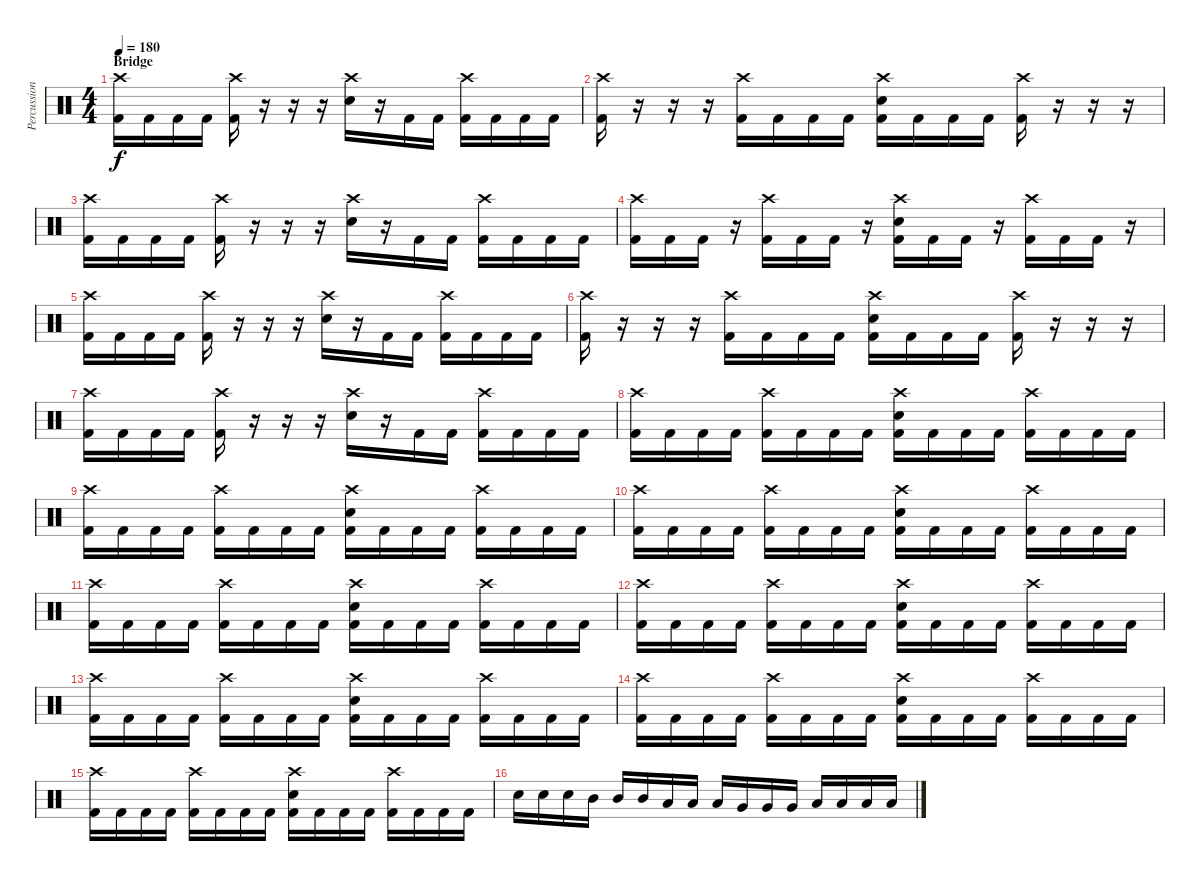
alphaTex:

\track ("Percussions" "Percussion") {instrument percussion}
\staff {score}
\articulation defaults
\ts (4 4)
\section ("" "Bridge")
\tempo 180
\clef neutral
\ks c
("Crash high (hit)" "Kick (hit) 2").16{dy f} "Kick (hit) 2".16 "Kick (hit) 2".16 "Kick (hit) 2".16 ("Crash high (hit)" "Kick (hit) 2").16 r.16 r.16 r.16 ("Crash high (hit)" "Electric Snare (hit)").16 r.16 "Kick (hit) 2".16 "Kick (hit) 2".16 ("Crash high (hit)" "Kick (hit) 2").16 "Kick (hit) 2".16 "Kick (hit) 2".16 "Kick (hit) 2".16 |
("Crash high (hit)" "Kick (hit) 2").16 r.16 r.16 r.16 ("Crash high (hit)" "Kick (hit) 2").16 "Kick (hit) 2".16 "Kick (hit) 2".16 "Kick (hit) 2".16 ("Crash high (hit)" "Electric Snare (hit)" "Kick (hit) 2").16 "Kick (hit) 2".16 "Kick (hit) 2".16 "Kick (hit) 2".16 ("Crash high (hit)" "Kick (hit) 2").16 r.16 r.16 r.16 |
("Crash high (hit)" "Kick (hit) 2").16 "Kick (hit) 2".16 "Kick (hit) 2".16 "Kick (hit) 2".16 ("Crash high (hit)" "Kick (hit) 2").16 r.16 r.16 r.16 ("Crash high (hit)" "Electric Snare (hit)").16 r.16 "Kick (hit) 2".16 "Kick (hit) 2".16 ("Crash high (hit)" "Kick (hit) 2").16 "Kick (hit) 2".16 "Kick (hit) 2".16 "Kick (hit) 2".16 |
("Crash high (hit)" "Kick (hit) 2").16 "Kick (hit) 2".16 "Kick (hit) 2".16 r.16 ("Crash high (hit)" "Kick (hit) 2").16 "Kick (hit) 2".16 "Kick (hit) 2".16 r.16 ("Crash high (hit)" "Electric Snare (hit)" "Kick (hit) 2").16 "Kick (hit) 2".16 "Kick (hit) 2".16 r.16 ("Crash high (hit)" "Kick (hit) 2").16 "Kick (hit) 2".16 "Kick (hit) 2".16 r.16 |
("Crash high (hit)" "Kick (hit) 2").16 "Kick (hit) 2".16 "Kick (hit) 2".16 "Kick (hit) 2".16 ("Crash high (hit)" "Kick (hit) 2").16 r.16 r.16 r.16 ("Crash high (hit)" "Electric Snare (hit)").16 r.16 "Kick (hit) 2".16 "Kick (hit) 2".16 ("Crash high (hit)" "Kick (hit) 2").16 "Kick (hit) 2".16 "Kick (hit) 2".16 "Kick (hit) 2".16 |
("Crash high (hit)" "Kick (hit) 2").16 r.16 r.16 r.16 ("Crash high (hit)" "Kick (hit) 2").16 "Kick (hit) 2".16 "Kick (hit) 2".16 "Kick (hit) 2".16 ("Crash high (hit)" "Electric Snare (hit)" "Kick (hit) 2").16 "Kick (hit) 2".16 "Kick (hit) 2".16 "Kick (hit) 2".16 ("Crash high (hit)" "Kick (hit) 2").16 r.16 r.16 r.16 |
("Crash high (hit)" "Kick (hit) 2").16 "Kick (hit) 2".16 "Kick (hit) 2".16 "Kick (hit) 2".16 ("Crash high (hit)" "Kick (hit) 2").16 r.16 r.16 r.16 ("Crash high (hit)" "Electric Snare (hit)").16 r.16 "Kick (hit) 2".16 "Kick (hit) 2".16 ("Crash high (hit)" "Kick (hit) 2").16 "Kick (hit) 2".16 "Kick (hit) 2".16 "Kick (hit) 2".16 |
("Crash high (hit)" "Kick (hit) 2").16 "Kick (hit) 2".16 "Kick (hit) 2".16 "Kick (hit) 2".16 ("Crash high (hit)" "Kick (hit) 2").16 "Kick (hit) 2".16 "Kick (hit) 2".16 "Kick (hit) 2".16 ("Crash high (hit)" "Electric Snare (hit)" "Kick (hit) 2").16 "Kick (hit) 2".16 "Kick (hit) 2".16 "Kick (hit) 2".16 ("Crash high (hit)" "Kick (hit) 2").16 "Kick (hit) 2".16 "Kick (hit) 2".16 "Kick (hit) 2".16 |
("Crash high (hit)" "Kick (hit) 2").16 "Kick (hit) 2".16 "Kick (hit) 2".16 "Kick (hit) 2".16 ("Crash high (hit)" "Kick (hit) 2").16 "Kick (hit) 2".16 "Kick (hit) 2".16 "Kick (hit) 2".16 ("Crash high (hit)" "Electric Snare (hit)" "Kick (hit) 2").16 "Kick (hit) 2".16 "Kick (hit) 2".16 "Kick (hit) 2".16 ("Crash high (hit)" "Kick (hit) 2").16 "Kick (hit) 2".16 "Kick (hit) 2".16 "Kick (hit) 2".16 |
("Crash high (hit)" "Kick (hit) 2").16 "Kick (hit) 2".16 "Kick (hit) 2".16 "Kick (hit) 2".16 ("Crash high (hit)" "Kick (hit) 2").16 "Kick (hit) 2".16 "Kick (hit) 2".16 "Kick (hit) 2".16 ("Crash high (hit)" "Electric Snare (hit)" "Kick (hit) 2").16 "Kick (hit) 2".16 "Kick (hit) 2".16 "Kick (hit) 2".16 ("Crash high (hit)" "Kick (hit) 2").16 "Kick (hit) 2".16 "Kick (hit) 2".16 "Kick (hit) 2".16 |
("Crash high (hit)" "Kick (hit) 2").16 "Kick (hit) 2".16 "Kick (hit) 2".16 "Kick (hit) 2".16 ("Crash high (hit)" "Kick (hit) 2").16 "Kick (hit) 2".16 "Kick (hit) 2".16 "Kick (hit) 2".16 ("Crash high (hit)" "Electric Snare (hit)" "Kick (hit) 2").16 "Kick (hit) 2".16 "Kick (hit) 2".16 "Kick (hit) 2".16 ("Crash high (hit)" "Kick (hit) 2").16 "Kick (hit) 2".16 "Kick (hit) 2".16 "Kick (hit) 2".16 |
("Crash high (hit)" "Kick (hit) 2").16 "Kick (hit) 2".16 "Kick (hit) 2".16 "Kick (hit) 2".16 ("Crash high (hit)" "Kick (hit) 2").16 "Kick (hit) 2".16 "Kick (hit) 2".16 "Kick (hit) 2".16 ("Crash high (hit)" "Electric Snare (hit)" "Kick (hit) 2").16 "Kick (hit) 2".16 "Kick (hit) 2".16 "Kick (hit) 2".16 ("Crash high (hit)" "Kick (hit) 2").16 "Kick (hit) 2".16 "Kick (hit) 2".16 "Kick (hit) 2".16 |
("Crash high (hit)" "Kick (hit) 2").16 "Kick (hit) 2".16 "Kick (hit) 2".16 "Kick (hit) 2".16 ("Crash high (hit)" "Kick (hit) 2").16 "Kick (hit) 2".16 "Kick (hit) 2".16 "Kick (hit) 2".16 ("Crash high (hit)" "Electric Snare (hit)" "Kick (hit) 2").16 "Kick (hit) 2".16 "Kick (hit) 2".16 "Kick (hit) 2".16 ("Crash high (hit)" "Kick (hit) 2").16 "Kick (hit) 2".16 "Kick (hit) 2".16 "Kick (hit) 2".16 |
("Crash high (hit)" "Kick (hit) 2").16 "Kick (hit) 2".16 "Kick (hit) 2".16 "Kick (hit) 2".16 ("Crash high (hit)" "Kick (hit) 2").16 "Kick (hit) 2".16 "Kick (hit) 2".16 "Kick (hit) 2".16 ("Crash high (hit)" "Electric Snare (hit)" "Kick (hit) 2").16 "Kick (hit) 2".16 "Kick (hit) 2".16 "Kick (hit) 2".16 ("Crash high (hit)" "Kick (hit) 2").16 "Kick (hit) 2".16 "Kick (hit) 2".16 "Kick (hit) 2".16 |
("Crash high (hit)" "Kick (hit) 2").16 "Kick (hit) 2".16 "Kick (hit) 2".16 "Kick (hit) 2".16 ("Crash high (hit)" "Kick (hit) 2").16 "Kick (hit) 2".16 "Kick (hit) 2".16 "Kick (hit) 2".16 ("Crash high (hit)" "Electric Snare (hit)" "Kick (hit) 2").16 "Kick (hit) 2".16 "Kick (hit) 2".16 "Kick (hit) 2".16 ("Crash high (hit)" "Kick (hit) 2").16 "Kick (hit) 2".16 "Kick (hit) 2".16 "Kick (hit) 2".16 |
"Electric Snare (hit)".16 "Electric Snare (hit)".16 "Electric Snare (hit)".16 "Mid Tom (hit)".16 "Mid Tom (hit)".16 "Mid Tom (hit)".16 "Low Tom (hit)".16 "Low Tom (hit)".16 "Low Tom (hit)".16 "Very Low Tom (hit)".16 "Very Low Tom (hit)".16 "Very Low Tom (hit)".16 "Low Floor Tom (hit)".16 "Low Floor Tom (hit)".16 "Low Floor Tom (hit)".16 "Low Floor Tom (hit)".16
